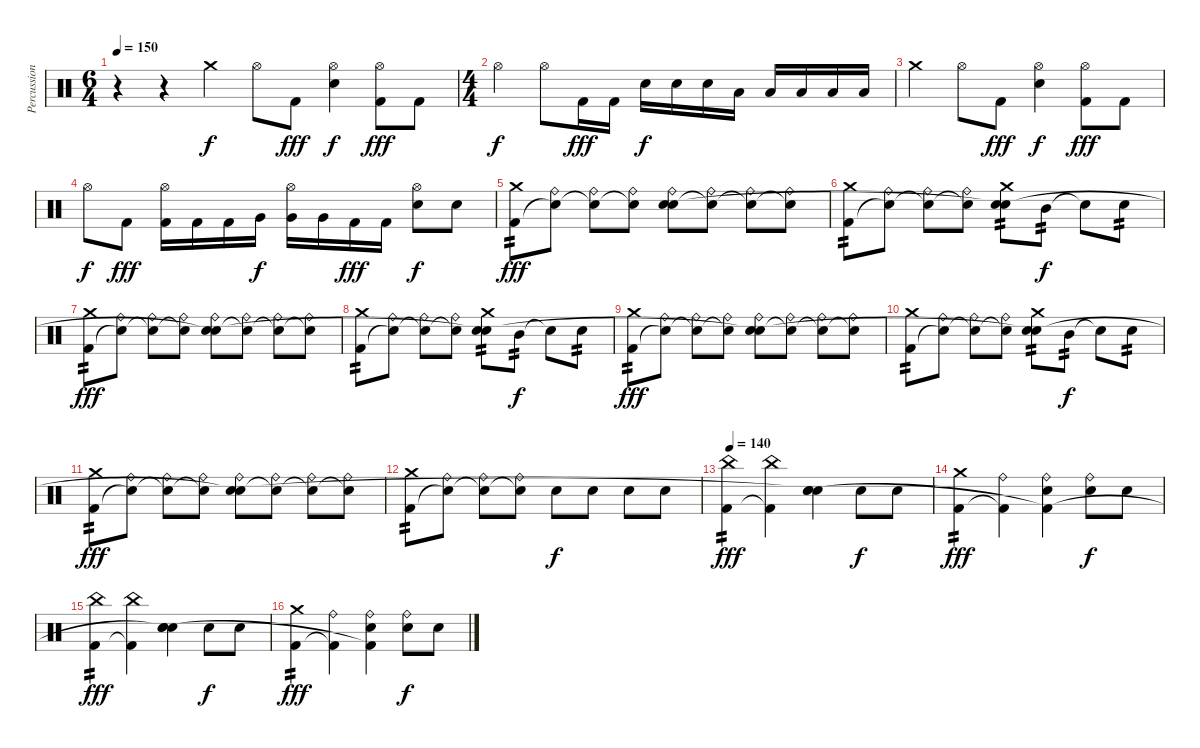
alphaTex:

\track ("Percussion" "Percussion") {instrument percussion}
\staff {score}
\articulation defaults
\ts (6 4)
\tempo 150
\clef neutral
\ks c
r.4{dy f} r.4 "Crash medium (hit)".4 "Hi-Hat (open)".8 "Kick (hit) 2".8{dy fff} ("Hi-Hat (open)" "Electric Snare (hit)").4{dy f} ("Hi-Hat (open)" "Kick (hit) 2").8{dy fff} "Kick (hit) 2".8 |
\ts (4 4)
"Hi-Hat (open)".4{dy f} "Hi-Hat (open)".8 "Kick (hit) 2".16{dy fff} "Kick (hit) 2".16 "Electric Snare (hit)".16{dy f} "Electric Snare (hit)".16 "Electric Snare (hit)".16 "Low Tom (hit)".16 "Low Tom (hit)".16 "Low Tom (hit)".16 "Low Floor Tom (hit)".16 "Low Floor Tom (hit)".16 |
"Crash medium (hit)".4 "Hi-Hat (open)".8 "Kick (hit) 2".8{dy fff} ("Hi-Hat (open)" "Electric Snare (hit)").4{dy f} ("Hi-Hat (open)" "Kick (hit) 2").8{dy fff} "Kick (hit) 2".8 |
"Hi-Hat (open)".8{dy f} "Kick (hit) 2".8{dy fff} ("Hi-Hat (open)" "Kick (hit) 2").16 "Kick (hit) 2".16 "Kick (hit) 2".16 "Very Low Tom (hit)".16{dy f} ("Hi-Hat (open)" "Very Low Tom (hit)").16 "Very Low Tom (hit)".16 "Kick (hit) 2".16{dy fff} "Kick (hit) 2".16 ("Hi-Hat (open)" "Electric Snare (hit)").8{dy f} "Electric Snare (hit)".8 |
("Crash medium (hit)" "Kick (hit) 2").8{tp 2 dy fff} ("Ride (bell)" "Snare (hit)"{t}).8 ("Ride (bell)" "Snare (hit)"{t}).8 ("Ride (bell)" "Snare (hit)"{t}).8 ("Ride (bell)" "Electric Snare (hit)" "Snare (hit)").8 ("Ride (bell)" "Snare (hit)"{t}).8 ("Ride (bell)" "Snare (hit)"{t}).8 ("Ride (bell)" "Snare (hit)"{t}).8 |
("Crash medium (hit)" "Kick (hit) 2").8{tp 2} ("Ride (bell)" "Snare (hit)"{t}).8 ("Ride (bell)" "Snare (hit)"{t}).8 ("Ride (bell)" "Snare (hit)"{t}).8 ("Crash medium (hit)" "Electric Snare (hit)" "Snare (hit)"{t}).8{tp 2} "Mid Tom (hit)".8{tp 2 dy f} "Electric Snare (hit)"{t}.8 "Electric Snare (hit)".8{tp 2} |
("Crash medium (hit)" "Kick (hit) 2").8{tp 2 dy fff} ("Ride (bell)" "Snare (hit)"{t}).8 ("Ride (bell)" "Snare (hit)"{t}).8 ("Ride (bell)" "Snare (hit)"{t}).8 ("Ride (bell)" "Electric Snare (hit)" "Snare (hit)"{t}).8 ("Ride (bell)" "Snare (hit)"{t}).8 ("Ride (bell)" "Snare (hit)"{t}).8 ("Ride (bell)" "Snare (hit)"{t}).8 |
("Crash medium (hit)" "Kick (hit) 2").8{tp 2} ("Ride (bell)" "Snare (hit)"{t}).8 ("Ride (bell)" "Snare (hit)"{t}).8 ("Ride (bell)" "Snare (hit)"{t}).8 ("Crash medium (hit)" "Electric Snare (hit)" "Snare (hit)"{t}).8{tp 2} "Mid Tom (hit)".8{tp 2 dy f} "Electric Snare (hit)"{t}.8 "Electric Snare (hit)".8{tp 2} |
("Crash medium (hit)" "Kick (hit) 2").8{tp 2 dy fff} ("Ride (bell)" "Snare (hit)"{t}).8 ("Ride (bell)" "Snare (hit)"{t}).8 ("Ride (bell)" "Snare (hit)"{t}).8 ("Ride (bell)" "Electric Snare (hit)" "Snare (hit)"{t}).8 ("Ride (bell)" "Snare (hit)"{t}).8 ("Ride (bell)" "Snare (hit)"{t}).8 ("Ride (bell)" "Snare (hit)"{t}).8 |
("Crash medium (hit)" "Kick (hit) 2").8{tp 2} ("Ride (bell)" "Snare (hit)"{t}).8 ("Ride (bell)" "Snare (hit)"{t}).8 ("Ride (bell)" "Snare (hit)"{t}).8 ("Crash medium (hit)" "Electric Snare (hit)" "Snare (hit)"{t}).8{tp 2} "Mid Tom (hit)".8{tp 2 dy f} "Electric Snare (hit)"{t}.8 "Electric Snare (hit)".8{tp 2} |
("Crash medium (hit)" "Kick (hit) 2").8{tp 2 dy fff} ("Ride (bell)" "Snare (hit)"{t}).8 ("Ride (bell)" "Snare (hit)"{t}).8 ("Ride (bell)" "Snare (hit)"{t}).8 ("Ride (bell)" "Electric Snare (hit)" "Snare (hit)"{t}).8 ("Ride (bell)" "Snare (hit)"{t}).8 ("Ride (bell)" "Snare (hit)"{t}).8 ("Ride (bell)" "Snare (hit)"{t}).8 |
("Crash medium (hit)" "Kick (hit) 2").8{tp 2} ("Ride (bell)" "Snare (hit)"{t}).8 ("Ride (bell)" "Snare (hit)"{t}).8 ("Ride (bell)" "Snare (hit)"{t}).8 "Electric Snare (hit)".8{dy f} "Electric Snare (hit)".8 "Electric Snare (hit)".8 "Electric Snare (hit)".8 |
\tempo 140
("China (hit)" "Kick (hit) 2").4{tp 2 dy fff} ("China (hit)" "Kick (hit) 2"{t}).4 ("Electric Snare (hit)" "Electric Snare (hit)" "Snare (hit)"{t}).4{bd 240} "Electric Snare (hit)".8{dy f} "Electric Snare (hit)".8 |
("Crash medium (hit)" "Kick (hit) 2").4{tp 2 dy fff} ("Ride (bell)" "Kick (hit) 2"{t}).4 ("Ride (bell)" "Electric Snare (hit)" "Kick (hit) 2"{t}).4 ("Ride (bell)" "Electric Snare (hit)").8{dy f} "Electric Snare (hit)".8 |
("China (hit)" "Kick (hit) 2").4{tp 2 dy fff} ("China (hit)" "Kick (hit) 2"{t}).4 ("Electric Snare (hit)" "Electric Snare (hit)" "Snare (hit)"{t}).4{bd 240} "Electric Snare (hit)".8{dy f} "Electric Snare (hit)".8 |
("Crash medium (hit)" "Kick (hit) 2").4{tp 2 dy fff} ("Ride (bell)" "Kick (hit) 2"{t}).4 ("Ride (bell)" "Electric Snare (hit)" "Kick (hit) 2"{t}).4 ("Ride (bell)" "Electric Snare (hit)").8{dy f} "Electric Snare (hit)".8
